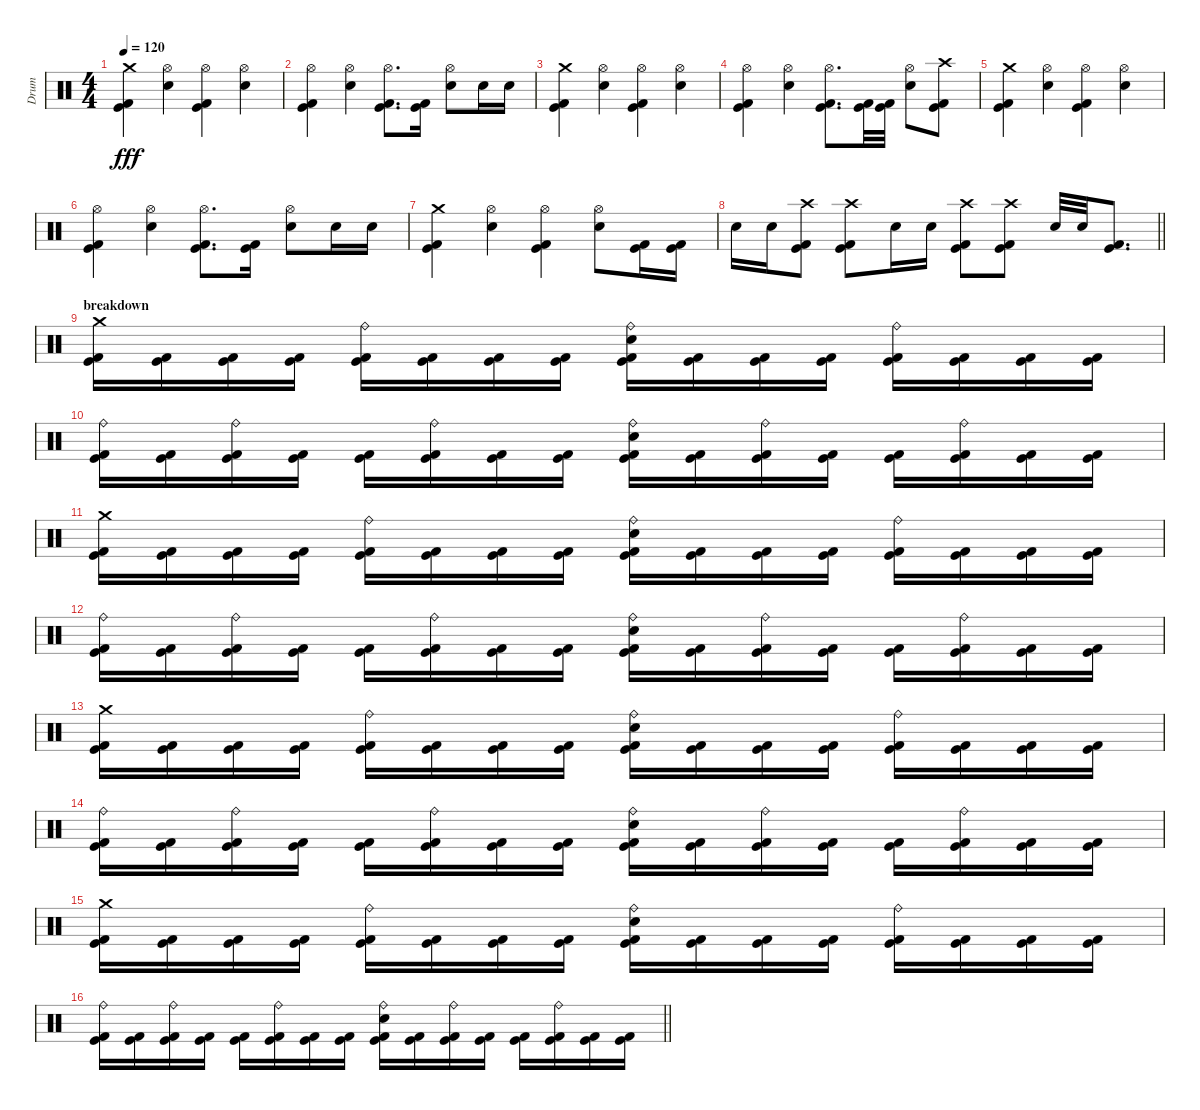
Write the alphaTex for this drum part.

\track ("Drum" "Drum") {instrument percussion}
\staff {score}
\articulation defaults
\ts (4 4)
\tempo 120
\clef neutral
\ks c
("Crash medium (hit)" "Kick (hit)" "Kick (hit) 2").4{dy fff} ("Electric Snare (hit)" "Hi-Hat (open)").4 ("Hi-Hat (open)" "Kick (hit)" "Kick (hit) 2").4 ("Electric Snare (hit)" "Hi-Hat (open)").4 |
("Hi-Hat (open)" "Kick (hit)" "Kick (hit) 2").4 ("Electric Snare (hit)" "Hi-Hat (open)").4 ("Hi-Hat (open)" "Kick (hit)" "Kick (hit) 2").8{d} ("Kick (hit)" "Kick (hit) 2").16 ("Electric Snare (hit)" "Hi-Hat (open)").8 "Electric Snare (hit)".16 "Electric Snare (hit)".16 |
("Crash medium (hit)" "Kick (hit)" "Kick (hit) 2").4 ("Electric Snare (hit)" "Hi-Hat (open)").4 ("Hi-Hat (open)" "Kick (hit)" "Kick (hit) 2").4 ("Electric Snare (hit)" "Hi-Hat (open)").4 |
("Hi-Hat (open)" "Kick (hit)" "Kick (hit) 2").4 ("Electric Snare (hit)" "Hi-Hat (open)").4 ("Hi-Hat (open)" "Kick (hit)" "Kick (hit) 2").8{d} ("Kick (hit)" "Kick (hit) 2").32 ("Kick (hit)" "Kick (hit) 2").32 ("Electric Snare (hit)" "Hi-Hat (open)").8 ("Crash high (hit)" "Kick (hit)" "Kick (hit) 2").8 |
("Crash medium (hit)" "Kick (hit)" "Kick (hit) 2").4 ("Electric Snare (hit)" "Hi-Hat (open)").4 ("Hi-Hat (open)" "Kick (hit)" "Kick (hit) 2").4 ("Electric Snare (hit)" "Hi-Hat (open)").4 |
("Hi-Hat (open)" "Kick (hit)" "Kick (hit) 2").4 ("Electric Snare (hit)" "Hi-Hat (open)").4 ("Hi-Hat (open)" "Kick (hit)" "Kick (hit) 2").8{d} ("Kick (hit)" "Kick (hit) 2").16 ("Electric Snare (hit)" "Hi-Hat (open)").8 "Electric Snare (hit)".16 "Electric Snare (hit)".16 |
("Crash medium (hit)" "Kick (hit)" "Kick (hit) 2").4 ("Electric Snare (hit)" "Hi-Hat (open)").4 ("Hi-Hat (open)" "Kick (hit)" "Kick (hit) 2").4 ("Electric Snare (hit)" "Hi-Hat (open)").8 ("Kick (hit)" "Kick (hit) 2").16 ("Kick (hit)" "Kick (hit) 2").16 |
\barLineRight lightlight "Electric Snare (hit)".16 "Electric Snare (hit)".16
("Crash high (hit)" "Kick (hit)" "Kick (hit) 2").8 ("Crash high (hit)" "Kick (hit)" "Kick (hit) 2").8 "Electric Snare (hit)".16 "Electric Snare (hit)".16 ("Crash high (hit)" "Kick (hit)" "Kick (hit) 2").8 ("Crash high (hit)" "Kick (hit)" "Kick (hit) 2").8 "Electric Snare (hit)".32 "Electric Snare (hit)".32 ("Kick (hit)" "Kick (hit) 2").8{d} |
\section ("" "breakdown")
("Crash medium (hit)" "Kick (hit)" "Kick (hit) 2").16 ("Kick (hit)" "Kick (hit) 2").16 ("Kick (hit)" "Kick (hit) 2").16 ("Kick (hit)" "Kick (hit) 2").16 ("Ride (bell)" "Kick (hit)" "Kick (hit) 2").16 ("Kick (hit)" "Kick (hit) 2").16 ("Kick (hit)" "Kick (hit) 2").16 ("Kick (hit)" "Kick (hit) 2").16 ("Ride (bell)" "Electric Snare (hit)" "Kick (hit)" "Kick (hit) 2").16 ("Kick (hit)" "Kick (hit) 2").16 ("Kick (hit)" "Kick (hit) 2").16 ("Kick (hit)" "Kick (hit) 2").16 ("Ride (bell)" "Kick (hit)" "Kick (hit) 2").16 ("Kick (hit)" "Kick (hit) 2").16 ("Kick (hit)" "Kick (hit) 2").16 ("Kick (hit)" "Kick (hit) 2").16 |
("Ride (bell)" "Kick (hit)" "Kick (hit) 2").16 ("Kick (hit)" "Kick (hit) 2").16 ("Ride (bell)" "Kick (hit)" "Kick (hit) 2").16 ("Kick (hit)" "Kick (hit) 2").16 ("Kick (hit)" "Kick (hit) 2").16 ("Ride (bell)" "Kick (hit)" "Kick (hit) 2").16 ("Kick (hit)" "Kick (hit) 2").16 ("Kick (hit)" "Kick (hit) 2").16 ("Ride (bell)" "Electric Snare (hit)" "Kick (hit)" "Kick (hit) 2").16 ("Kick (hit)" "Kick (hit) 2").16 ("Ride (bell)" "Kick (hit)" "Kick (hit) 2").16 ("Kick (hit)" "Kick (hit) 2").16 ("Kick (hit)" "Kick (hit) 2").16 ("Ride (bell)" "Kick (hit)" "Kick (hit) 2").16 ("Kick (hit)" "Kick (hit) 2").16 ("Kick (hit)" "Kick (hit) 2").16 |
("Crash medium (hit)" "Kick (hit)" "Kick (hit) 2").16 ("Kick (hit)" "Kick (hit) 2").16 ("Kick (hit)" "Kick (hit) 2").16 ("Kick (hit)" "Kick (hit) 2").16 ("Ride (bell)" "Kick (hit)" "Kick (hit) 2").16 ("Kick (hit)" "Kick (hit) 2").16 ("Kick (hit)" "Kick (hit) 2").16 ("Kick (hit)" "Kick (hit) 2").16 ("Ride (bell)" "Electric Snare (hit)" "Kick (hit)" "Kick (hit) 2").16 ("Kick (hit)" "Kick (hit) 2").16 ("Kick (hit)" "Kick (hit) 2").16 ("Kick (hit)" "Kick (hit) 2").16 ("Ride (bell)" "Kick (hit)" "Kick (hit) 2").16 ("Kick (hit)" "Kick (hit) 2").16 ("Kick (hit)" "Kick (hit) 2").16 ("Kick (hit)" "Kick (hit) 2").16 |
("Ride (bell)" "Kick (hit)" "Kick (hit) 2").16 ("Kick (hit)" "Kick (hit) 2").16 ("Ride (bell)" "Kick (hit)" "Kick (hit) 2").16 ("Kick (hit)" "Kick (hit) 2").16 ("Kick (hit)" "Kick (hit) 2").16 ("Ride (bell)" "Kick (hit)" "Kick (hit) 2").16 ("Kick (hit)" "Kick (hit) 2").16 ("Kick (hit)" "Kick (hit) 2").16 ("Ride (bell)" "Electric Snare (hit)" "Kick (hit)" "Kick (hit) 2").16 ("Kick (hit)" "Kick (hit) 2").16 ("Ride (bell)" "Kick (hit)" "Kick (hit) 2").16 ("Kick (hit)" "Kick (hit) 2").16 ("Kick (hit)" "Kick (hit) 2").16 ("Ride (bell)" "Kick (hit)" "Kick (hit) 2").16 ("Kick (hit)" "Kick (hit) 2").16 ("Kick (hit)" "Kick (hit) 2").16 |
("Crash medium (hit)" "Kick (hit)" "Kick (hit) 2").16 ("Kick (hit)" "Kick (hit) 2").16 ("Kick (hit)" "Kick (hit) 2").16 ("Kick (hit)" "Kick (hit) 2").16 ("Ride (bell)" "Kick (hit)" "Kick (hit) 2").16 ("Kick (hit)" "Kick (hit) 2").16 ("Kick (hit)" "Kick (hit) 2").16 ("Kick (hit)" "Kick (hit) 2").16 ("Ride (bell)" "Electric Snare (hit)" "Kick (hit)" "Kick (hit) 2").16 ("Kick (hit)" "Kick (hit) 2").16 ("Kick (hit)" "Kick (hit) 2").16 ("Kick (hit)" "Kick (hit) 2").16 ("Ride (bell)" "Kick (hit)" "Kick (hit) 2").16 ("Kick (hit)" "Kick (hit) 2").16 ("Kick (hit)" "Kick (hit) 2").16 ("Kick (hit)" "Kick (hit) 2").16 |
("Ride (bell)" "Kick (hit)" "Kick (hit) 2").16 ("Kick (hit)" "Kick (hit) 2").16 ("Ride (bell)" "Kick (hit)" "Kick (hit) 2").16 ("Kick (hit)" "Kick (hit) 2").16 ("Kick (hit)" "Kick (hit) 2").16 ("Ride (bell)" "Kick (hit)" "Kick (hit) 2").16 ("Kick (hit)" "Kick (hit) 2").16 ("Kick (hit)" "Kick (hit) 2").16 ("Ride (bell)" "Electric Snare (hit)" "Kick (hit)" "Kick (hit) 2").16 ("Kick (hit)" "Kick (hit) 2").16 ("Ride (bell)" "Kick (hit)" "Kick (hit) 2").16 ("Kick (hit)" "Kick (hit) 2").16 ("Kick (hit)" "Kick (hit) 2").16 ("Ride (bell)" "Kick (hit)" "Kick (hit) 2").16 ("Kick (hit)" "Kick (hit) 2").16 ("Kick (hit)" "Kick (hit) 2").16 |
("Crash medium (hit)" "Kick (hit)" "Kick (hit) 2").16 ("Kick (hit)" "Kick (hit) 2").16 ("Kick (hit)" "Kick (hit) 2").16 ("Kick (hit)" "Kick (hit) 2").16 ("Ride (bell)" "Kick (hit)" "Kick (hit) 2").16 ("Kick (hit)" "Kick (hit) 2").16 ("Kick (hit)" "Kick (hit) 2").16 ("Kick (hit)" "Kick (hit) 2").16 ("Ride (bell)" "Electric Snare (hit)" "Kick (hit)" "Kick (hit) 2").16 ("Kick (hit)" "Kick (hit) 2").16 ("Kick (hit)" "Kick (hit) 2").16 ("Kick (hit)" "Kick (hit) 2").16 ("Ride (bell)" "Kick (hit)" "Kick (hit) 2").16 ("Kick (hit)" "Kick (hit) 2").16 ("Kick (hit)" "Kick (hit) 2").16 ("Kick (hit)" "Kick (hit) 2").16 |
\barLineRight lightlight
("Ride (bell)" "Kick (hit)" "Kick (hit) 2").16 ("Kick (hit)" "Kick (hit) 2").16 ("Ride (bell)" "Kick (hit)" "Kick (hit) 2").16 ("Kick (hit)" "Kick (hit) 2").16 ("Kick (hit)" "Kick (hit) 2").16 ("Ride (bell)" "Kick (hit)" "Kick (hit) 2").16 ("Kick (hit)" "Kick (hit) 2").16 ("Kick (hit)" "Kick (hit) 2").16 ("Ride (bell)" "Electric Snare (hit)" "Kick (hit)" "Kick (hit) 2").16 ("Kick (hit)" "Kick (hit) 2").16 ("Ride (bell)" "Kick (hit)" "Kick (hit) 2").16 ("Kick (hit)" "Kick (hit) 2").16 ("Kick (hit)" "Kick (hit) 2").16 ("Ride (bell)" "Kick (hit)" "Kick (hit) 2").16 ("Kick (hit)" "Kick (hit) 2").16 ("Kick (hit)" "Kick (hit) 2").16
